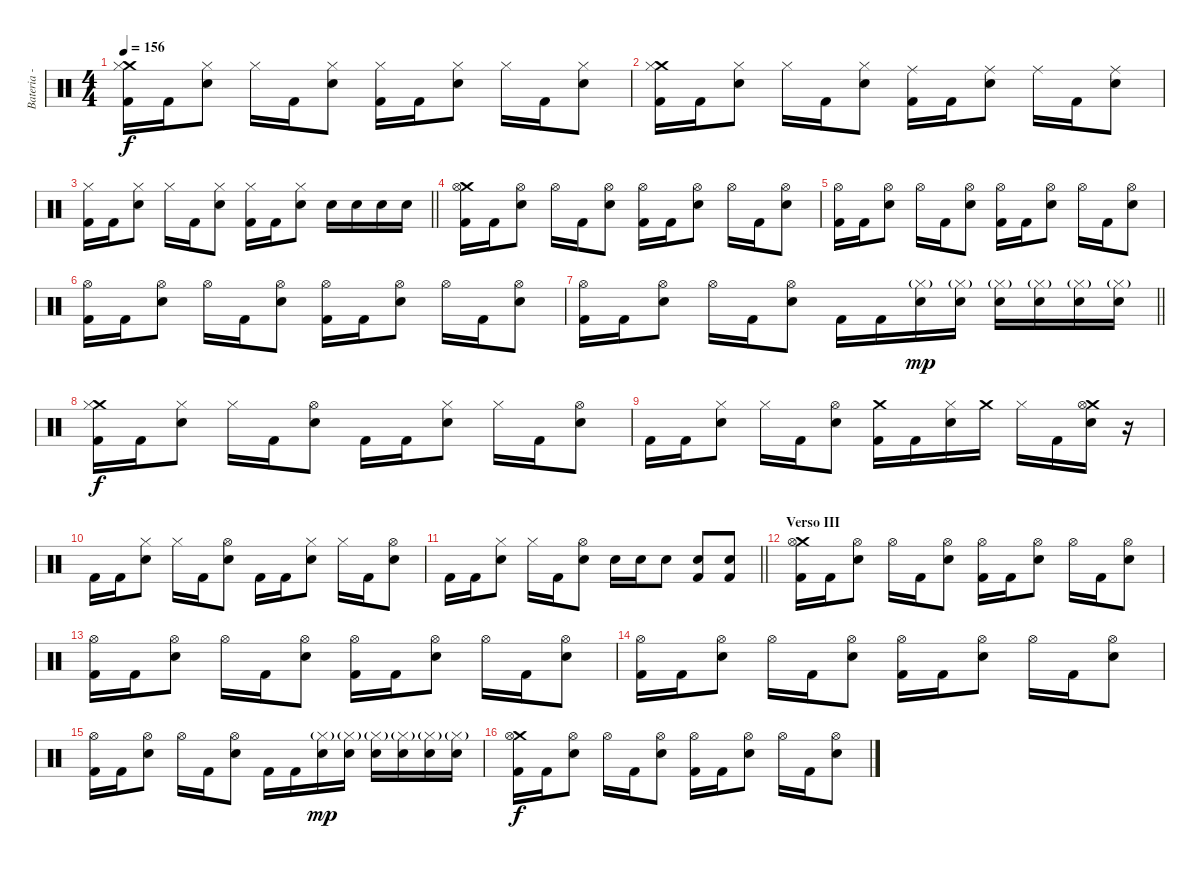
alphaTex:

\track ("Bateria - Larzon" "Bateria - ") {instrument percussion}
\staff {score}
\articulation defaults
\ts (4 4)
\tempo 156
\clef neutral
\ks c
("Crash medium (hit)" "Kick (hit) 2" "Hi-Hat (closed)").16{dy f} "Kick (hit) 2".16 ("Snare (hit) 2" "Hi-Hat (closed)").8 "Hi-Hat (closed)".16 "Kick (hit) 2".16 ("Snare (hit) 2" "Hi-Hat (closed)").8 ("Kick (hit) 2" "Hi-Hat (closed)").16 "Kick (hit) 2".16 ("Snare (hit) 2" "Hi-Hat (closed)").8 "Hi-Hat (closed)".16 "Kick (hit) 2".16 ("Snare (hit) 2" "Hi-Hat (closed)").8 |
("Crash medium (hit)" "Kick (hit) 2" "Hi-Hat (closed)").16 "Kick (hit) 2".16 ("Snare (hit) 2" "Hi-Hat (closed)").8 "Hi-Hat (closed)".16 "Kick (hit) 2".16 ("Snare (hit) 2" "Hi-Hat (closed)").8 ("Kick (hit) 2" "Ride (middle)").16 "Kick (hit) 2".16 ("Snare (hit) 2" "Ride (middle)").8 "Ride (middle)".16 "Kick (hit) 2".16 ("Snare (hit) 2" "Ride (middle)").8 |
\barLineRight lightlight
("Kick (hit) 2" "Hi-Hat (closed)").16 "Kick (hit) 2".16 ("Snare (hit) 2" "Hi-Hat (closed)").8 "Hi-Hat (closed)".16 "Kick (hit) 2".16 ("Snare (hit) 2" "Hi-Hat (closed)").8 ("Kick (hit) 2" "Hi-Hat (closed)").16 "Kick (hit) 2".16 ("Snare (hit) 2" "Hi-Hat (closed)").8 "Snare (hit) 2".16 "Snare (hit) 2".16 "Snare (hit) 2".16 "Snare (hit) 2".16 |
("Crash medium (hit)" "Kick (hit) 2" "Hi-Hat (open)").16 "Kick (hit) 2".16 ("Snare (hit) 2" "Hi-Hat (open)").8 "Hi-Hat (open)".16 "Kick (hit) 2".16 ("Snare (hit) 2" "Hi-Hat (open)").8 ("Kick (hit) 2" "Hi-Hat (open)").16 "Kick (hit) 2".16 ("Snare (hit) 2" "Hi-Hat (open)").8 "Hi-Hat (open)".16 "Kick (hit) 2".16 ("Snare (hit) 2" "Hi-Hat (open)").8 |
("Kick (hit) 2" "Hi-Hat (open)").16 "Kick (hit) 2".16 ("Snare (hit) 2" "Hi-Hat (open)").8 "Hi-Hat (open)".16 "Kick (hit) 2".16 ("Snare (hit) 2" "Hi-Hat (open)").8 ("Kick (hit) 2" "Hi-Hat (open)").16 "Kick (hit) 2".16 ("Snare (hit) 2" "Hi-Hat (open)").8 "Hi-Hat (open)".16 "Kick (hit) 2".16 ("Snare (hit) 2" "Hi-Hat (open)").8 |
("Kick (hit) 2" "Hi-Hat (open)").16 "Kick (hit) 2".16 ("Snare (hit) 2" "Hi-Hat (open)").8 "Hi-Hat (open)".16 "Kick (hit) 2".16 ("Snare (hit) 2" "Hi-Hat (open)").8 ("Kick (hit) 2" "Hi-Hat (open)").16 "Kick (hit) 2".16 ("Snare (hit) 2" "Hi-Hat (open)").8 "Hi-Hat (open)".16 "Kick (hit) 2".16 ("Snare (hit) 2" "Hi-Hat (open)").8 |
\barLineRight lightlight
("Kick (hit) 2" "Hi-Hat (open)").16 "Kick (hit) 2".16 ("Snare (hit) 2" "Hi-Hat (open)").8 "Hi-Hat (open)".16 "Kick (hit) 2".16 ("Snare (hit) 2" "Hi-Hat (open)").8 "Kick (hit) 2".16 "Kick (hit) 2".16 ("Snare (hit) 2" "Hi-Hat (closed)"{g}).16{dy mp} ("Snare (hit) 2" "Hi-Hat (closed)"{g}).16 ("Snare (hit) 2" "Hi-Hat (closed)"{g}).16 ("Snare (hit) 2" "Hi-Hat (closed)"{g}).16 ("Snare (hit) 2" "Hi-Hat (closed)"{g}).16 ("Snare (hit) 2" "Hi-Hat (closed)"{g}).16 |
("Crash medium (hit)" "Kick (hit) 2" "Hi-Hat (closed)").16{dy f} "Kick (hit) 2".16 ("Snare (hit) 2" "Hi-Hat (closed)").8 "Hi-Hat (closed)".16 "Kick (hit) 2".16 ("Snare (hit) 2" "Hi-Hat (open)").8 "Kick (hit) 2".16 "Kick (hit) 2".16 ("Snare (hit) 2" "Hi-Hat (closed)").8 "Hi-Hat (closed)".16 "Kick (hit) 2".16 ("Snare (hit) 2" "Hi-Hat (open)").8 |
"Kick (hit) 2".16 "Kick (hit) 2".16 ("Snare (hit) 2" "Hi-Hat (closed)").8 "Hi-Hat (closed)".16 "Kick (hit) 2".16 ("Snare (hit) 2" "Hi-Hat (open)").8 ("Kick (hit) 2" "Crash medium (hit)").16 "Kick (hit) 2".16 ("Snare (hit) 2" "Hi-Hat (closed)").16 "Crash medium (hit)".16 "Hi-Hat (closed)".16 "Kick (hit) 2".16 ("Snare (hit) 2" "Crash medium (hit)" "Hi-Hat (open)").16 r.16 |
"Kick (hit) 2".16 "Kick (hit) 2".16 ("Snare (hit) 2" "Hi-Hat (closed)").8 "Hi-Hat (closed)".16 "Kick (hit) 2".16 ("Snare (hit) 2" "Hi-Hat (open)").8 "Kick (hit) 2".16 "Kick (hit) 2".16 ("Snare (hit) 2" "Hi-Hat (closed)").8 "Hi-Hat (closed)".16 "Kick (hit) 2".16 ("Snare (hit) 2" "Hi-Hat (open)").8 |
\barLineRight lightlight "Kick (hit) 2".16 "Kick (hit) 2".16
("Snare (hit) 2" "Hi-Hat (closed)").8 "Hi-Hat (closed)".16 "Kick (hit) 2".16 ("Snare (hit) 2" "Hi-Hat (open)").8 "Snare (hit) 2".16 "Snare (hit) 2".16 "Snare (hit) 2".8 ("Kick (hit) 2" "Snare (hit) 2").8 ("Kick (hit) 2" "Snare (hit) 2").8 |
\section ("" "Verso III")
("Crash medium (hit)" "Kick (hit) 2" "Hi-Hat (open)").16 "Kick (hit) 2".16 ("Snare (hit) 2" "Hi-Hat (open)").8 "Hi-Hat (open)".16 "Kick (hit) 2".16 ("Snare (hit) 2" "Hi-Hat (open)").8 ("Kick (hit) 2" "Hi-Hat (open)").16 "Kick (hit) 2".16 ("Snare (hit) 2" "Hi-Hat (open)").8 "Hi-Hat (open)".16 "Kick (hit) 2".16 ("Snare (hit) 2" "Hi-Hat (open)").8 |
("Kick (hit) 2" "Hi-Hat (open)").16 "Kick (hit) 2".16 ("Snare (hit) 2" "Hi-Hat (open)").8 "Hi-Hat (open)".16 "Kick (hit) 2".16 ("Snare (hit) 2" "Hi-Hat (open)").8 ("Kick (hit) 2" "Hi-Hat (open)").16 "Kick (hit) 2".16 ("Snare (hit) 2" "Hi-Hat (open)").8 "Hi-Hat (open)".16 "Kick (hit) 2".16 ("Snare (hit) 2" "Hi-Hat (open)").8 |
("Kick (hit) 2" "Hi-Hat (open)").16 "Kick (hit) 2".16 ("Snare (hit) 2" "Hi-Hat (open)").8 "Hi-Hat (open)".16 "Kick (hit) 2".16 ("Snare (hit) 2" "Hi-Hat (open)").8 ("Kick (hit) 2" "Hi-Hat (open)").16 "Kick (hit) 2".16 ("Snare (hit) 2" "Hi-Hat (open)").8 "Hi-Hat (open)".16 "Kick (hit) 2".16 ("Snare (hit) 2" "Hi-Hat (open)").8 |
("Kick (hit) 2" "Hi-Hat (open)").16 "Kick (hit) 2".16 ("Snare (hit) 2" "Hi-Hat (open)").8 "Hi-Hat (open)".16 "Kick (hit) 2".16 ("Snare (hit) 2" "Hi-Hat (open)").8 "Kick (hit) 2".16 "Kick (hit) 2".16 ("Snare (hit) 2" "Hi-Hat (closed)"{g}).16{dy mp} ("Snare (hit) 2" "Hi-Hat (closed)"{g}).16 ("Snare (hit) 2" "Hi-Hat (closed)"{g}).16 ("Snare (hit) 2" "Hi-Hat (closed)"{g}).16 ("Snare (hit) 2" "Hi-Hat (closed)"{g}).16 ("Snare (hit) 2" "Hi-Hat (closed)"{g}).16 |
("Crash medium (hit)" "Kick (hit) 2" "Hi-Hat (open)").16{dy f} "Kick (hit) 2".16 ("Snare (hit) 2" "Hi-Hat (open)").8 "Hi-Hat (open)".16 "Kick (hit) 2".16 ("Snare (hit) 2" "Hi-Hat (open)").8 ("Kick (hit) 2" "Hi-Hat (open)").16 "Kick (hit) 2".16 ("Snare (hit) 2" "Hi-Hat (open)").8 "Hi-Hat (open)".16 "Kick (hit) 2".16 ("Snare (hit) 2" "Hi-Hat (open)").8
